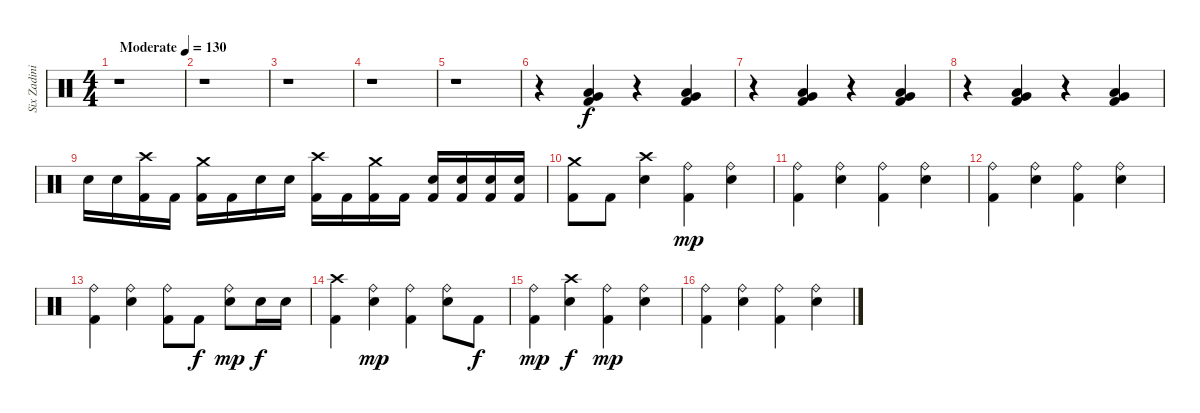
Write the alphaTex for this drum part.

\track ("Six Zadinia" "Six Zadini") {instrument percussion}
\staff {score}
\articulation defaults
\ts (4 4)
\tempo (130 "Moderate")
\clef neutral
\ks c
r.1{dy f} |
r.1 |
r.1 |
r.1 |
r.1 |
r.4 ("Low Floor Tom (hit)" "Very Low Tom (hit)" "Kick (hit) 2").4 r.4 ("Low Floor Tom (hit)" "Very Low Tom (hit)" "Kick (hit) 2").4 |
r.4 ("Low Floor Tom (hit)" "Very Low Tom (hit)" "Kick (hit) 2").4 r.4 ("Low Floor Tom (hit)" "Very Low Tom (hit)" "Kick (hit) 2").4 |
r.4 ("Low Floor Tom (hit)" "Very Low Tom (hit)" "Kick (hit) 2").4 r.4 ("Low Floor Tom (hit)" "Very Low Tom (hit)" "Kick (hit) 2").4 |
"Electric Snare (hit)".16 "Electric Snare (hit)".16 ("Crash high (hit)" "Kick (hit) 2").16 "Kick (hit) 2".16 ("Crash medium (hit)" "Kick (hit) 2").16 "Kick (hit) 2".16 "Electric Snare (hit)".16 "Electric Snare (hit)".16 ("Crash high (hit)" "Kick (hit) 2").16 "Kick (hit) 2".16 ("Crash medium (hit)" "Kick (hit) 2").16 "Kick (hit) 2".16 ("Electric Snare (hit)" "Kick (hit) 2").16 ("Electric Snare (hit)" "Kick (hit) 2").16 ("Electric Snare (hit)" "Kick (hit) 2").16 ("Electric Snare (hit)" "Kick (hit) 2").16 |
("Crash medium (hit)" "Kick (hit) 2").8 "Kick (hit) 2".8 ("Crash high (hit)" "Electric Snare (hit)").4 ("Ride (bell)" "Kick (hit) 2").4{dy mp} ("Ride (bell)" "Electric Snare (hit)").4 |
("Ride (bell)" "Kick (hit) 2").4 ("Ride (bell)" "Electric Snare (hit)").4 ("Ride (bell)" "Kick (hit) 2").4 ("Ride (bell)" "Electric Snare (hit)").4 |
("Ride (bell)" "Kick (hit) 2").4 ("Ride (bell)" "Electric Snare (hit)").4 ("Ride (bell)" "Kick (hit) 2").4 ("Ride (bell)" "Electric Snare (hit)").4 |
("Ride (bell)" "Kick (hit) 2").4 ("Ride (bell)" "Electric Snare (hit)").4 ("Ride (bell)" "Kick (hit) 2").8 "Kick (hit) 2".8{dy f} ("Ride (bell)" "Electric Snare (hit)").8{dy mp} "Electric Snare (hit)".16{dy f} "Electric Snare (hit)".16 |
("Crash high (hit)" "Kick (hit) 2").4 ("Ride (bell)" "Electric Snare (hit)").4{dy mp} ("Ride (bell)" "Kick (hit) 2").4 ("Ride (bell)" "Electric Snare (hit)").8 "Kick (hit) 2".8{dy f} |
("Ride (bell)" "Kick (hit) 2").4{dy mp} ("Crash high (hit)" "Electric Snare (hit)").4{dy f} ("Ride (bell)" "Kick (hit) 2").4{dy mp} ("Ride (bell)" "Electric Snare (hit)").4 |
("Ride (bell)" "Kick (hit) 2").4 ("Ride (bell)" "Electric Snare (hit)").4 ("Ride (bell)" "Kick (hit) 2").4 ("Ride (bell)" "Electric Snare (hit)").4
